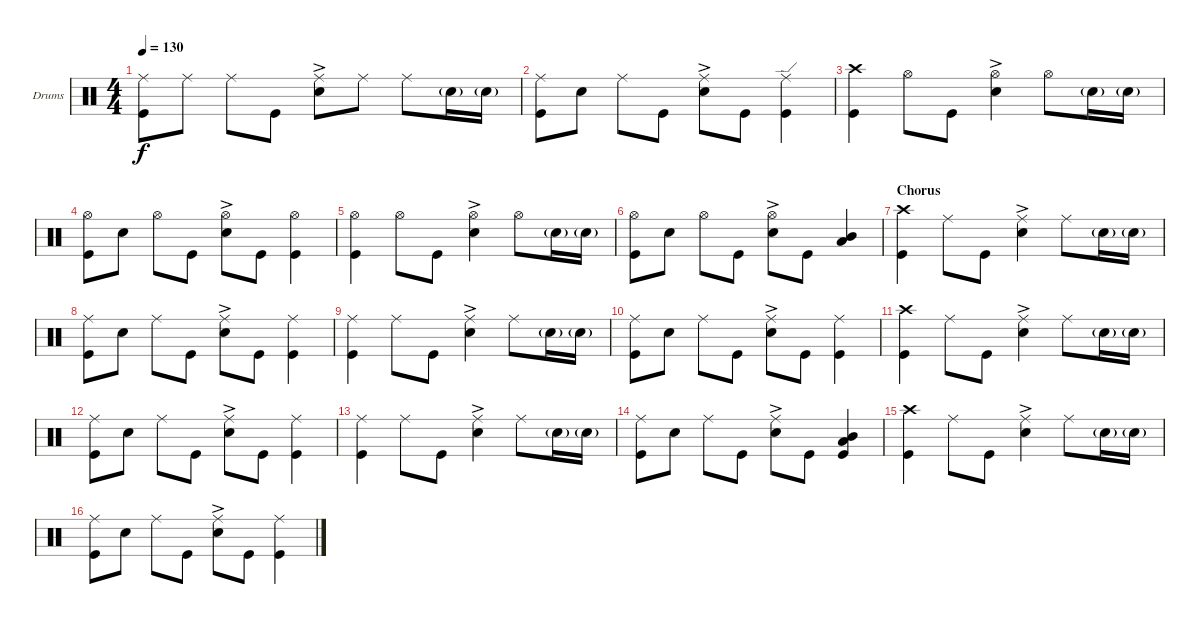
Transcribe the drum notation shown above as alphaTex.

\bracketExtendMode groupsimilarinstruments
\firstSystemTrackNameOrientation horizontal
\otherSystemsTrackNameOrientation horizontal
\track ("Drumkit" "Drums") {instrument percussion}
\staff {score}
\articulation defaults
\ts (4 4)
\tempo 130
\clef neutral
\ks c
("Kick (hit)" "Ride (middle)").8{dy f} "Ride (middle)".8 "Ride (middle)".8 "Kick (hit)".8 ("Snare (hit) 2"{ac} "Ride (middle)").8 "Ride (middle)".8 "Ride (middle)".8 "Snare (hit) 2"{g}.16 "Snare (hit) 2"{g}.16 |
("Kick (hit)" "Ride (middle)").8 "Snare (hit) 2".8 "Ride (middle)".8 "Kick (hit)".8 ("Snare (hit) 2"{ac} "Ride (middle)").8 "Kick (hit)".8 ("Kick (hit)" "Ride (edge)").4 |
("Kick (hit)" "Crash high (hit)").4 "Hi-Hat (open)".8 "Kick (hit)".8 ("Snare (hit) 2"{ac} "Hi-Hat (open)").4 "Hi-Hat (open)".8 "Snare (hit) 2"{g}.16 "Snare (hit) 2"{g}.16 |
("Kick (hit)" "Hi-Hat (open)").8 "Snare (hit) 2".8 "Hi-Hat (open)".8 "Kick (hit)".8 ("Snare (hit) 2"{ac} "Hi-Hat (open)").8 "Kick (hit)".8 ("Hi-Hat (open)" "Kick (hit)").4 |
("Hi-Hat (open)" "Kick (hit)").4 "Hi-Hat (open)".8 "Kick (hit)".8 ("Snare (hit) 2"{ac} "Hi-Hat (open)").4 "Hi-Hat (open)".8 "Snare (hit) 2"{g}.16 "Snare (hit) 2"{g}.16 |
("Kick (hit)" "Hi-Hat (open)").8 "Snare (hit) 2".8 "Hi-Hat (open)".8 "Kick (hit)".8 ("Snare (hit) 2"{ac} "Hi-Hat (open)").8 "Kick (hit)".8 ("Low Tom (hit)" "Mid Tom (hit)").4 |
\section ("" "Chorus")
("Kick (hit)" "Crash high (hit)").4 "Ride (middle)".8 "Kick (hit)".8 ("Snare (hit) 2"{ac} "Ride (middle)").4 "Ride (middle)".8 "Snare (hit) 2"{g}.16 "Snare (hit) 2"{g}.16 |
("Kick (hit)" "Ride (middle)").8 "Snare (hit) 2".8 "Ride (middle)".8 "Kick (hit)".8 ("Snare (hit) 2"{ac} "Ride (middle)").8 "Kick (hit)".8 ("Kick (hit)" "Ride (middle)").4 |
("Kick (hit)" "Ride (middle)").4 "Ride (middle)".8 "Kick (hit)".8 ("Snare (hit) 2"{ac} "Ride (middle)").4 "Ride (middle)".8 "Snare (hit) 2"{g}.16 "Snare (hit) 2"{g}.16 |
("Kick (hit)" "Ride (middle)").8 "Snare (hit) 2".8 "Ride (middle)".8 "Kick (hit)".8 ("Snare (hit) 2"{ac} "Ride (middle)").8 "Kick (hit)".8 ("Kick (hit)" "Ride (middle)").4 |
("Kick (hit)" "Crash high (hit)").4 "Ride (middle)".8 "Kick (hit)".8 ("Snare (hit) 2"{ac} "Ride (middle)").4 "Ride (middle)".8 "Snare (hit) 2"{g}.16 "Snare (hit) 2"{g}.16 |
("Kick (hit)" "Ride (middle)").8 "Snare (hit) 2".8 "Ride (middle)".8 "Kick (hit)".8 ("Snare (hit) 2"{ac} "Ride (middle)").8 "Kick (hit)".8 ("Kick (hit)" "Ride (middle)").4 |
("Kick (hit)" "Ride (middle)").4 "Ride (middle)".8 "Kick (hit)".8 ("Snare (hit) 2"{ac} "Ride (middle)").4 "Ride (middle)".8 "Snare (hit) 2"{g}.16 "Snare (hit) 2"{g}.16 |
("Kick (hit)" "Ride (middle)").8 "Snare (hit) 2".8 "Ride (middle)".8 "Kick (hit)".8 ("Snare (hit) 2"{ac} "Ride (middle)").8 "Kick (hit)".8 ("Kick (hit)" "Mid Tom (hit)" "Low Tom (hit)").4 |
("Kick (hit)" "Crash high (hit)").4 "Ride (middle)".8 "Kick (hit)".8 ("Snare (hit) 2"{ac} "Ride (middle)").4 "Ride (middle)".8 "Snare (hit) 2"{g}.16 "Snare (hit) 2"{g}.16 |
("Kick (hit)" "Ride (middle)").8 "Snare (hit) 2".8 "Ride (middle)".8 "Kick (hit)".8 ("Snare (hit) 2"{ac} "Ride (middle)").8 "Kick (hit)".8 ("Kick (hit)" "Ride (middle)").4
